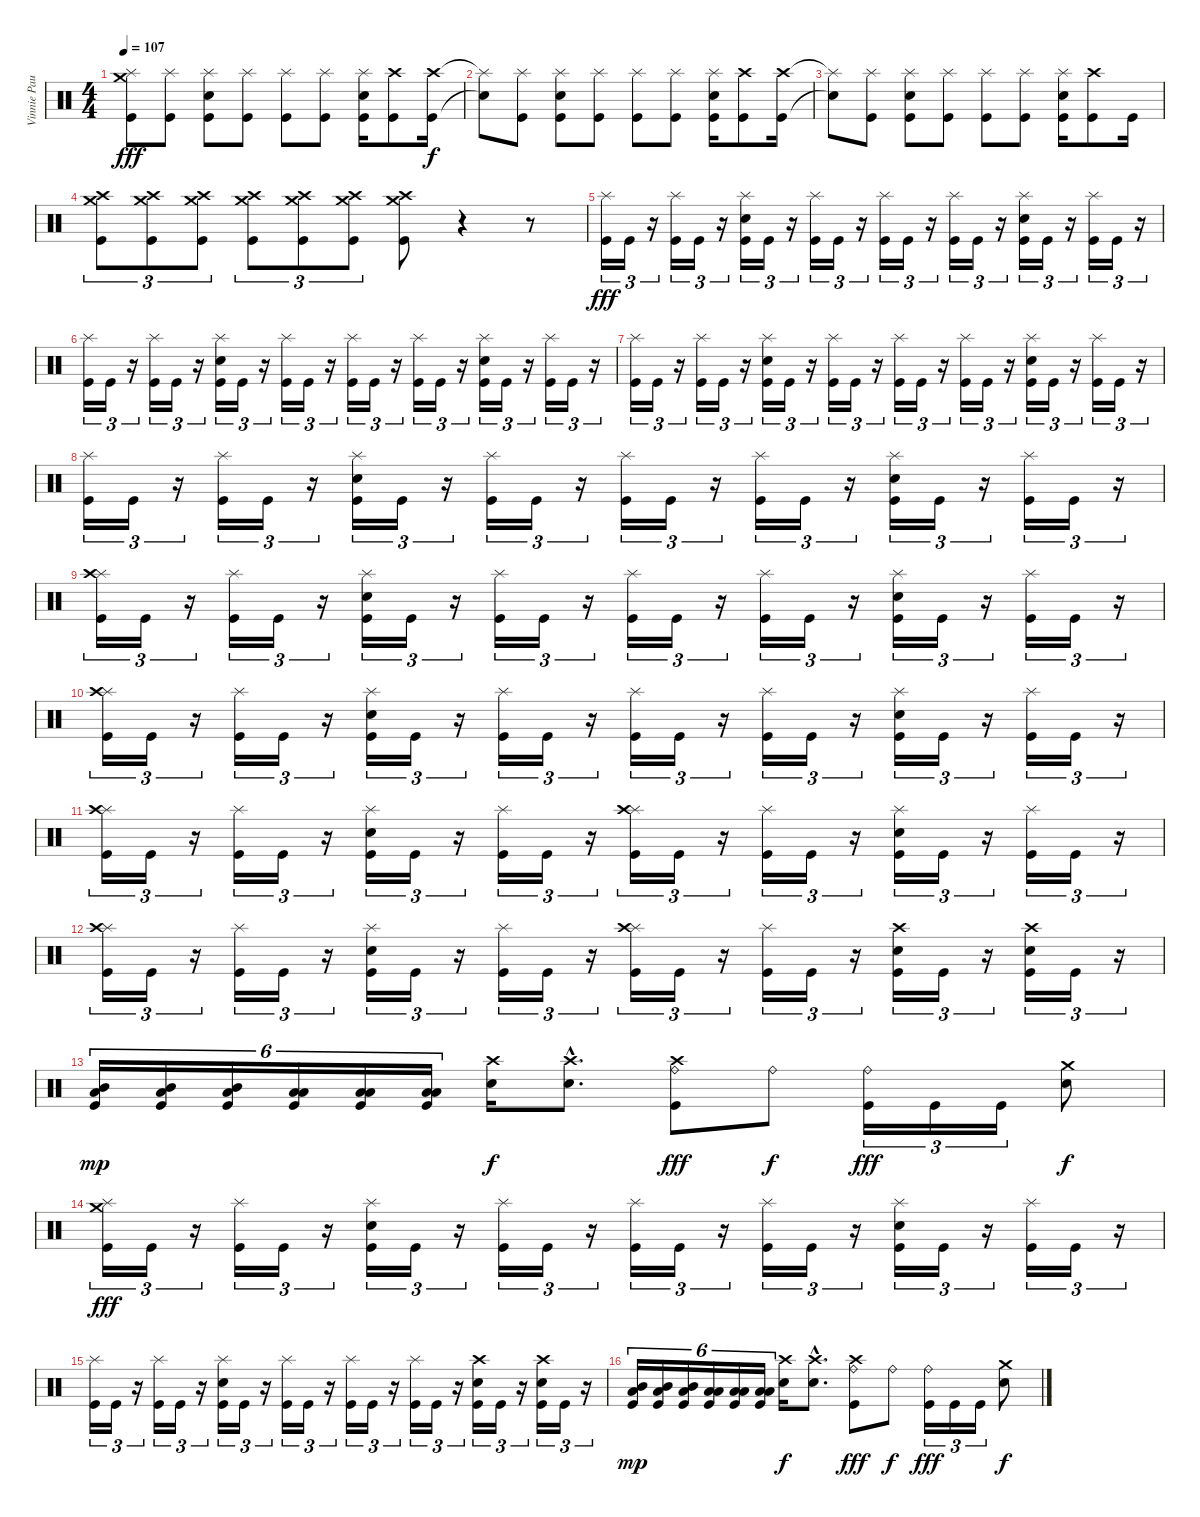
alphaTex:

\track ("Vinnie Paul" "Vinnie Pau") {instrument percussion}
\staff {score}
\articulation defaults
\ts (4 4)
\tempo 107
\clef neutral
\ks c
("Splash (hit)" "Crash medium (hit)" "Kick (hit)").8{dy fff} ("Splash (hit)" "Kick (hit)").8 ("Splash (hit)" "Kick (hit)" "Electric Snare (hit)").8 ("Splash (hit)" "Kick (hit)").8 ("Splash (hit)" "Kick (hit)").8 ("Splash (hit)" "Kick (hit)").8 ("Splash (hit)" "Kick (hit)" "Electric Snare (hit)").16 ("Crash high (hit)" "Kick (hit)").8 ("Crash high (hit)" "Kick (hit)").16{dy f} |
("Splash (hit)"{t} "Snare (hit)"{t}).8 ("Splash (hit)" "Kick (hit)").8 ("Splash (hit)" "Kick (hit)" "Electric Snare (hit)").8 ("Splash (hit)" "Kick (hit)").8 ("Splash (hit)" "Kick (hit)").8 ("Splash (hit)" "Kick (hit)").8 ("Splash (hit)" "Kick (hit)" "Electric Snare (hit)").16 ("Crash high (hit)" "Kick (hit)").8 ("Crash high (hit)" "Kick (hit)").16 |
("Splash (hit)"{t} "Snare (hit)"{t}).8 ("Splash (hit)" "Kick (hit)").8 ("Splash (hit)" "Kick (hit)" "Electric Snare (hit)").8 ("Splash (hit)" "Kick (hit)").8 ("Splash (hit)" "Kick (hit)").8 ("Splash (hit)" "Kick (hit)").8 ("Splash (hit)" "Kick (hit)" "Electric Snare (hit)").16 ("Crash high (hit)" "Kick (hit)").8 "Kick (hit)".16 |
("Crash high (hit)" "Crash medium (hit)" "Kick (hit)").8{tu (3 2)} ("Crash high (hit)" "Crash medium (hit)" "Kick (hit)").8{tu (3 2)} ("Crash high (hit)" "Crash medium (hit)" "Kick (hit)").8{tu (3 2)} ("Crash high (hit)" "Crash medium (hit)" "Kick (hit)").8{tu (3 2)} ("Crash high (hit)" "Crash medium (hit)" "Kick (hit)").8{tu (3 2)} ("Crash high (hit)" "Crash medium (hit)" "Kick (hit)").8{tu (3 2)} ("Crash high (hit)" "Crash medium (hit)" "Kick (hit)").8 r.4 r.8 |
("Splash (hit)" "Kick (hit)").16{tu (3 2) dy fff} "Kick (hit)".16{tu (3 2)} r.16{tu (3 2)} ("Splash (hit)" "Kick (hit)").16{tu (3 2)} "Kick (hit)".16{tu (3 2)} r.16{tu (3 2)} ("Splash (hit)" "Kick (hit)" "Electric Snare (hit)").16{tu (3 2)} "Kick (hit)".16{tu (3 2)} r.16{tu (3 2)} ("Splash (hit)" "Kick (hit)").16{tu (3 2)} "Kick (hit)".16{tu (3 2)} r.16{tu (3 2)} ("Splash (hit)" "Kick (hit)").16{tu (3 2)} "Kick (hit)".16{tu (3 2)} r.16{tu (3 2)} ("Splash (hit)" "Kick (hit)").16{tu (3 2)} "Kick (hit)".16{tu (3 2)} r.16{tu (3 2)} ("Splash (hit)" "Kick (hit)" "Electric Snare (hit)").16{tu (3 2)} "Kick (hit)".16{tu (3 2)} r.16{tu (3 2)} ("Splash (hit)" "Kick (hit)").16{tu (3 2)} "Kick (hit)".16{tu (3 2)} r.16{tu (3 2)} |
("Splash (hit)" "Kick (hit)").16{tu (3 2)} "Kick (hit)".16{tu (3 2)} r.16{tu (3 2)} ("Splash (hit)" "Kick (hit)").16{tu (3 2)} "Kick (hit)".16{tu (3 2)} r.16{tu (3 2)} ("Splash (hit)" "Kick (hit)" "Electric Snare (hit)").16{tu (3 2)} "Kick (hit)".16{tu (3 2)} r.16{tu (3 2)} ("Splash (hit)" "Kick (hit)").16{tu (3 2)} "Kick (hit)".16{tu (3 2)} r.16{tu (3 2)} ("Splash (hit)" "Kick (hit)").16{tu (3 2)} "Kick (hit)".16{tu (3 2)} r.16{tu (3 2)} ("Splash (hit)" "Kick (hit)").16{tu (3 2)} "Kick (hit)".16{tu (3 2)} r.16{tu (3 2)} ("Splash (hit)" "Kick (hit)" "Electric Snare (hit)").16{tu (3 2)} "Kick (hit)".16{tu (3 2)} r.16{tu (3 2)} ("Splash (hit)" "Kick (hit)").16{tu (3 2)} "Kick (hit)".16{tu (3 2)} r.16{tu (3 2)} |
("Splash (hit)" "Kick (hit)").16{tu (3 2)} "Kick (hit)".16{tu (3 2)} r.16{tu (3 2)} ("Splash (hit)" "Kick (hit)").16{tu (3 2)} "Kick (hit)".16{tu (3 2)} r.16{tu (3 2)} ("Splash (hit)" "Kick (hit)" "Electric Snare (hit)").16{tu (3 2)} "Kick (hit)".16{tu (3 2)} r.16{tu (3 2)} ("Splash (hit)" "Kick (hit)").16{tu (3 2)} "Kick (hit)".16{tu (3 2)} r.16{tu (3 2)} ("Splash (hit)" "Kick (hit)").16{tu (3 2)} "Kick (hit)".16{tu (3 2)} r.16{tu (3 2)} ("Splash (hit)" "Kick (hit)").16{tu (3 2)} "Kick (hit)".16{tu (3 2)} r.16{tu (3 2)} ("Splash (hit)" "Kick (hit)" "Electric Snare (hit)").16{tu (3 2)} "Kick (hit)".16{tu (3 2)} r.16{tu (3 2)} ("Splash (hit)" "Kick (hit)").16{tu (3 2)} "Kick (hit)".16{tu (3 2)} r.16{tu (3 2)} |
("Splash (hit)" "Kick (hit)").16{tu (3 2)} "Kick (hit)".16{tu (3 2)} r.16{tu (3 2)} ("Splash (hit)" "Kick (hit)").16{tu (3 2)} "Kick (hit)".16{tu (3 2)} r.16{tu (3 2)} ("Splash (hit)" "Kick (hit)" "Electric Snare (hit)").16{tu (3 2)} "Kick (hit)".16{tu (3 2)} r.16{tu (3 2)} ("Splash (hit)" "Kick (hit)").16{tu (3 2)} "Kick (hit)".16{tu (3 2)} r.16{tu (3 2)} ("Splash (hit)" "Kick (hit)").16{tu (3 2)} "Kick (hit)".16{tu (3 2)} r.16{tu (3 2)} ("Splash (hit)" "Kick (hit)").16{tu (3 2)} "Kick (hit)".16{tu (3 2)} r.16{tu (3 2)} ("Splash (hit)" "Kick (hit)" "Electric Snare (hit)").16{tu (3 2)} "Kick (hit)".16{tu (3 2)} r.16{tu (3 2)} ("Splash (hit)" "Kick (hit)").16{tu (3 2)} "Kick (hit)".16{tu (3 2)} r.16{tu (3 2)} |
("Splash (hit)" "Crash high (hit)" "Kick (hit)").16{tu (3 2)} "Kick (hit)".16{tu (3 2)} r.16{tu (3 2)} ("Splash (hit)" "Kick (hit)").16{tu (3 2)} "Kick (hit)".16{tu (3 2)} r.16{tu (3 2)} ("Splash (hit)" "Kick (hit)" "Electric Snare (hit)").16{tu (3 2)} "Kick (hit)".16{tu (3 2)} r.16{tu (3 2)} ("Splash (hit)" "Kick (hit)").16{tu (3 2)} "Kick (hit)".16{tu (3 2)} r.16{tu (3 2)} ("Splash (hit)" "Kick (hit)").16{tu (3 2)} "Kick (hit)".16{tu (3 2)} r.16{tu (3 2)} ("Splash (hit)" "Kick (hit)").16{tu (3 2)} "Kick (hit)".16{tu (3 2)} r.16{tu (3 2)} ("Splash (hit)" "Kick (hit)" "Electric Snare (hit)").16{tu (3 2)} "Kick (hit)".16{tu (3 2)} r.16{tu (3 2)} ("Splash (hit)" "Kick (hit)").16{tu (3 2)} "Kick (hit)".16{tu (3 2)} r.16{tu (3 2)} |
("Splash (hit)" "Crash high (hit)" "Kick (hit)").16{tu (3 2)} "Kick (hit)".16{tu (3 2)} r.16{tu (3 2)} ("Splash (hit)" "Kick (hit)").16{tu (3 2)} "Kick (hit)".16{tu (3 2)} r.16{tu (3 2)} ("Splash (hit)" "Kick (hit)" "Electric Snare (hit)").16{tu (3 2)} "Kick (hit)".16{tu (3 2)} r.16{tu (3 2)} ("Splash (hit)" "Kick (hit)").16{tu (3 2)} "Kick (hit)".16{tu (3 2)} r.16{tu (3 2)} ("Splash (hit)" "Kick (hit)").16{tu (3 2)} "Kick (hit)".16{tu (3 2)} r.16{tu (3 2)} ("Splash (hit)" "Kick (hit)").16{tu (3 2)} "Kick (hit)".16{tu (3 2)} r.16{tu (3 2)} ("Splash (hit)" "Kick (hit)" "Electric Snare (hit)").16{tu (3 2)} "Kick (hit)".16{tu (3 2)} r.16{tu (3 2)} ("Splash (hit)" "Kick (hit)").16{tu (3 2)} "Kick (hit)".16{tu (3 2)} r.16{tu (3 2)} |
("Splash (hit)" "Crash high (hit)" "Kick (hit)").16{tu (3 2)} "Kick (hit)".16{tu (3 2)} r.16{tu (3 2)} ("Splash (hit)" "Kick (hit)").16{tu (3 2)} "Kick (hit)".16{tu (3 2)} r.16{tu (3 2)} ("Splash (hit)" "Kick (hit)" "Electric Snare (hit)").16{tu (3 2)} "Kick (hit)".16{tu (3 2)} r.16{tu (3 2)} ("Splash (hit)" "Kick (hit)").16{tu (3 2)} "Kick (hit)".16{tu (3 2)} r.16{tu (3 2)} ("Splash (hit)" "Crash high (hit)" "Kick (hit)").16{tu (3 2)} "Kick (hit)".16{tu (3 2)} r.16{tu (3 2)} ("Splash (hit)" "Kick (hit)").16{tu (3 2)} "Kick (hit)".16{tu (3 2)} r.16{tu (3 2)} ("Splash (hit)" "Kick (hit)" "Electric Snare (hit)").16{tu (3 2)} "Kick (hit)".16{tu (3 2)} r.16{tu (3 2)} ("Splash (hit)" "Kick (hit)").16{tu (3 2)} "Kick (hit)".16{tu (3 2)} r.16{tu (3 2)} |
("Splash (hit)" "Crash high (hit)" "Kick (hit)").16{tu (3 2)} "Kick (hit)".16{tu (3 2)} r.16{tu (3 2)} ("Splash (hit)" "Kick (hit)").16{tu (3 2)} "Kick (hit)".16{tu (3 2)} r.16{tu (3 2)} ("Splash (hit)" "Kick (hit)" "Electric Snare (hit)").16{tu (3 2)} "Kick (hit)".16{tu (3 2)} r.16{tu (3 2)} ("Splash (hit)" "Kick (hit)").16{tu (3 2)} "Kick (hit)".16{tu (3 2)} r.16{tu (3 2)} ("Splash (hit)" "Crash high (hit)" "Kick (hit)").16{tu (3 2)} "Kick (hit)".16{tu (3 2)} r.16{tu (3 2)} ("Splash (hit)" "Kick (hit)").16{tu (3 2)} "Kick (hit)".16{tu (3 2)} r.16{tu (3 2)} ("Crash high (hit)" "Kick (hit)" "Electric Snare (hit)").16{tu (3 2)} "Kick (hit)".16{tu (3 2)} r.16{tu (3 2)} ("Crash high (hit)" "Kick (hit)" "Electric Snare (hit)").16{tu (3 2)} "Kick (hit)".16{tu (3 2)} r.16{tu (3 2)} |
("Kick (hit)" "Mid Tom (hit)" "Low Tom (hit)").16{tu (6 4) dy mp} ("Kick (hit)" "Mid Tom (hit)" "Low Tom (hit)").16{tu (6 4)} ("Kick (hit)" "Mid Tom (hit)" "Low Tom (hit)").16{tu (6 4)} ("Kick (hit)" "Low Tom (hit)" "Low Tom (hit)").16{tu (6 4)} ("Kick (hit)" "Low Tom (hit)" "Low Tom (hit)").16{tu (6 4)} ("Kick (hit)" "Low Tom (hit)" "Low Tom (hit)").16{tu (6 4)} ("Crash high (hit)" "Electric Snare (hit)").16{dy f} ("Crash high (hit)"{hac} "Electric Snare (hit)"{hac}).8{d} ("Crash high (hit)" "Ride (bell)" "Kick (hit)").8{dy fff} "Ride (bell)".8{dy f} ("Ride (bell)" "Kick (hit)").16{tu (3 2) dy fff} "Kick (hit)".16{tu (3 2)} "Kick (hit)".16{tu (3 2)} ("Crash medium (hit)" "Electric Snare (hit)").8{dy f} |
("Splash (hit)" "Crash medium (hit)" "Kick (hit)").16{tu (3 2) dy fff} "Kick (hit)".16{tu (3 2)} r.16{tu (3 2)} ("Splash (hit)" "Kick (hit)").16{tu (3 2)} "Kick (hit)".16{tu (3 2)} r.16{tu (3 2)} ("Splash (hit)" "Kick (hit)" "Electric Snare (hit)").16{tu (3 2)} "Kick (hit)".16{tu (3 2)} r.16{tu (3 2)} ("Splash (hit)" "Kick (hit)").16{tu (3 2)} "Kick (hit)".16{tu (3 2)} r.16{tu (3 2)} ("Splash (hit)" "Kick (hit)").16{tu (3 2)} "Kick (hit)".16{tu (3 2)} r.16{tu (3 2)} ("Splash (hit)" "Kick (hit)").16{tu (3 2)} "Kick (hit)".16{tu (3 2)} r.16{tu (3 2)} ("Splash (hit)" "Kick (hit)" "Electric Snare (hit)").16{tu (3 2)} "Kick (hit)".16{tu (3 2)} r.16{tu (3 2)} ("Splash (hit)" "Kick (hit)").16{tu (3 2)} "Kick (hit)".16{tu (3 2)} r.16{tu (3 2)} |
("Splash (hit)" "Kick (hit)").16{tu (3 2)} "Kick (hit)".16{tu (3 2)} r.16{tu (3 2)} ("Splash (hit)" "Kick (hit)").16{tu (3 2)} "Kick (hit)".16{tu (3 2)} r.16{tu (3 2)} ("Splash (hit)" "Kick (hit)" "Electric Snare (hit)").16{tu (3 2)} "Kick (hit)".16{tu (3 2)} r.16{tu (3 2)} ("Splash (hit)" "Kick (hit)").16{tu (3 2)} "Kick (hit)".16{tu (3 2)} r.16{tu (3 2)} ("Splash (hit)" "Kick (hit)").16{tu (3 2)} "Kick (hit)".16{tu (3 2)} r.16{tu (3 2)} ("Splash (hit)" "Kick (hit)").16{tu (3 2)} "Kick (hit)".16{tu (3 2)} r.16{tu (3 2)} ("Crash high (hit)" "Kick (hit)" "Electric Snare (hit)").16{tu (3 2)} "Kick (hit)".16{tu (3 2)} r.16{tu (3 2)} ("Crash high (hit)" "Kick (hit)" "Electric Snare (hit)").16{tu (3 2)} "Kick (hit)".16{tu (3 2)} r.16{tu (3 2)} |
("Kick (hit)" "Mid Tom (hit)" "Low Tom (hit)").16{tu (6 4) dy mp} ("Kick (hit)" "Mid Tom (hit)" "Low Tom (hit)").16{tu (6 4)} ("Kick (hit)" "Mid Tom (hit)" "Low Tom (hit)").16{tu (6 4)} ("Kick (hit)" "Low Tom (hit)" "Low Tom (hit)").16{tu (6 4)} ("Kick (hit)" "Low Tom (hit)" "Low Tom (hit)").16{tu (6 4)} ("Kick (hit)" "Low Tom (hit)" "Low Tom (hit)").16{tu (6 4)} ("Crash high (hit)" "Electric Snare (hit)").16{dy f} ("Crash high (hit)"{hac} "Electric Snare (hit)"{hac}).8{d} ("Crash high (hit)" "Ride (bell)" "Kick (hit)").8{dy fff} "Ride (bell)".8{dy f} ("Ride (bell)" "Kick (hit)").16{tu (3 2) dy fff} "Kick (hit)".16{tu (3 2)} "Kick (hit)".16{tu (3 2)} ("Crash medium (hit)" "Electric Snare (hit)").8{dy f}
